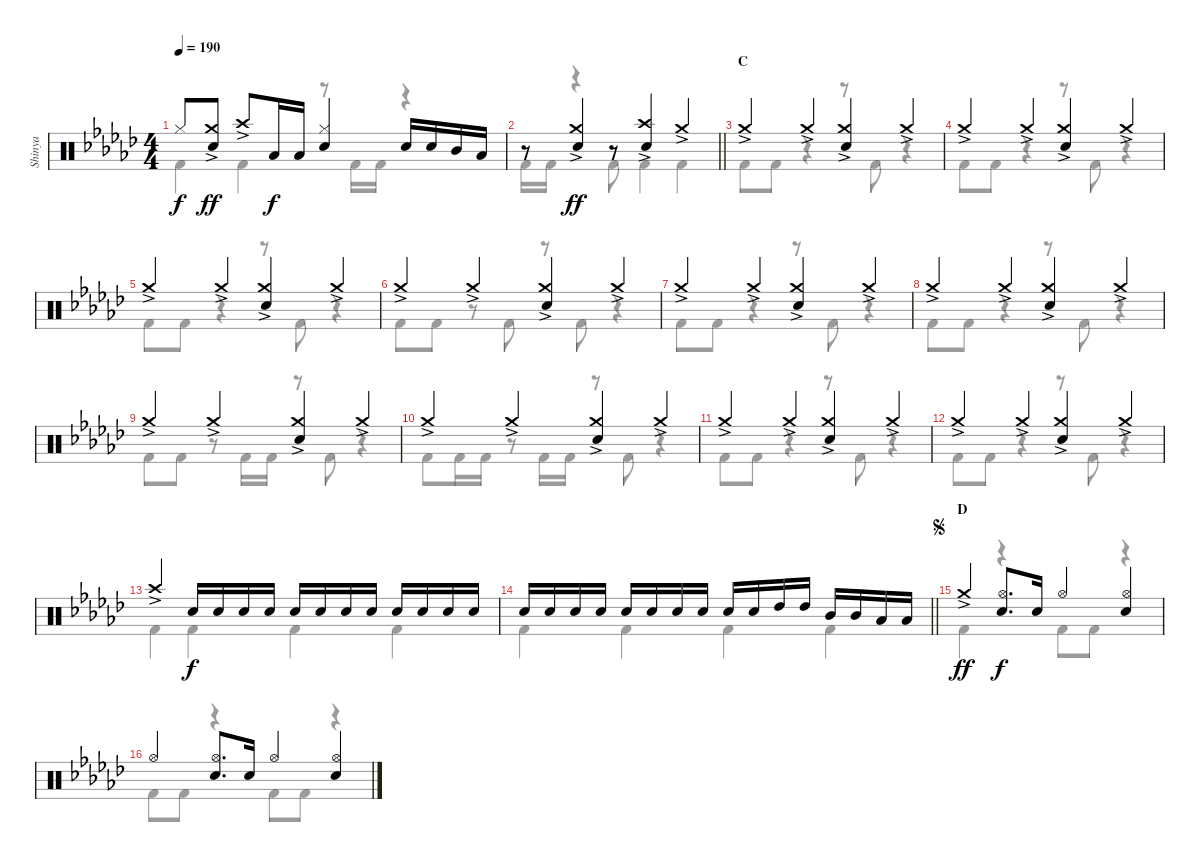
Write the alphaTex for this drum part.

\track ("Shinya" "Shinya") {instrument percussion}
\staff {score}
\articulation defaults
\voice
\ts (4 4)
\tempo 190
\clef neutral
\ks ebminor "Hi-Hat (closed)".8{dy f}
("Crash medium (hit)"{ac} "Snare (hit) 2").8{dy ff} "Crash high (hit)"{ac}.8 "Low Tom (hit)".16{dy f} "Low Tom (hit)".16 ("Hi-Hat (closed)" "Snare (hit) 2").4 "Snare (hit) 2".16 "Snare (hit) 2".16 "Mid Tom (hit)".16 "Low Tom (hit)".16 |
\barLineRight lightlight
r.8 ("Crash medium (hit)"{ac} "Snare (hit) 2").4{dy ff} r.8 ("Crash high (hit)"{ac} "Snare (hit) 2").4 "Crash medium (hit)"{ac}.4 |
\section ("" "C")
"Crash medium (hit)"{ac}.4 "Crash medium (hit)"{ac}.4 ("Crash medium (hit)"{ac} "Snare (hit) 2").4 "Crash medium (hit)"{ac}.4 |
"Crash medium (hit)"{ac}.4 "Crash medium (hit)"{ac}.4 ("Crash medium (hit)"{ac} "Snare (hit) 2").4 "Crash medium (hit)"{ac}.4 |
"Crash medium (hit)"{ac}.4 "Crash medium (hit)"{ac}.4 ("Crash medium (hit)"{ac} "Snare (hit) 2").4 "Crash medium (hit)"{ac}.4 |
"Crash medium (hit)"{ac}.4 "Crash medium (hit)"{ac}.4 ("Crash medium (hit)"{ac} "Snare (hit) 2").4 "Crash medium (hit)"{ac}.4 |
"Crash medium (hit)"{ac}.4 "Crash medium (hit)"{ac}.4 ("Crash medium (hit)"{ac} "Snare (hit) 2").4 "Crash medium (hit)"{ac}.4 |
"Crash medium (hit)"{ac}.4 "Crash medium (hit)"{ac}.4 ("Crash medium (hit)"{ac} "Snare (hit) 2").4 "Crash medium (hit)"{ac}.4 |
"Crash medium (hit)"{ac}.4 "Crash medium (hit)"{ac}.4 ("Crash medium (hit)"{ac} "Snare (hit) 2").4 "Crash medium (hit)"{ac}.4 |
"Crash medium (hit)"{ac}.4 "Crash medium (hit)"{ac}.4 ("Crash medium (hit)"{ac} "Snare (hit) 2").4 "Crash medium (hit)"{ac}.4 |
"Crash medium (hit)"{ac}.4 "Crash medium (hit)"{ac}.4 ("Crash medium (hit)"{ac} "Snare (hit) 2").4 "Crash medium (hit)"{ac}.4 |
"Crash medium (hit)"{ac}.4 "Crash medium (hit)"{ac}.4 ("Crash medium (hit)"{ac} "Snare (hit) 2").4 "Crash medium (hit)"{ac}.4 |
"Crash high (hit)"{ac}.4 "Snare (hit) 2".16{dy f} "Snare (hit) 2".16 "Snare (hit) 2".16 "Snare (hit) 2".16 "Snare (hit) 2".16 "Snare (hit) 2".16 "Snare (hit) 2".16 "Snare (hit) 2".16 "Snare (hit) 2".16 "Snare (hit) 2".16 "Snare (hit) 2".16 "Snare (hit) 2".16 |
\barLineRight lightlight "Snare (hit) 2".16 "Snare (hit) 2".16 "Snare (hit) 2".16 "Snare (hit) 2".16 "Snare (hit) 2".16 "Snare (hit) 2".16 "Snare (hit) 2".16 "Snare (hit) 2".16 "Snare (hit) 2".16 "Snare (hit) 2".16 "High Tom (hit)".16 "High Tom (hit)".16 "Mid Tom (hit)".16 "Mid Tom (hit)".16 "Low Tom (hit)".16 "Low Tom (hit)".16
|
\section ("" "D")
\jump segno "Crash medium (hit)"{ac}.4{dy ff}
("Hi-Hat (open)" "Snare (hit) 2").8{d dy f} "Snare (hit) 2".16 "Hi-Hat (open)".4 ("Hi-Hat (open)" "Snare (hit) 2").4 |
"Hi-Hat (open)".4 ("Hi-Hat (open)" "Snare (hit) 2").8{d} "Snare (hit) 2".16 "Hi-Hat (open)".4 ("Hi-Hat (open)" "Snare (hit) 2").4
\voice
\clef neutral
\ottava regular
\simile none
\ks ebminor "Kick (hit) 2".4{dy f} "Kick (hit) 2".4
r.8 "Kick (hit) 2".16 "Kick (hit) 2".16 r.4 |
\barLineRight lightlight "Kick (hit) 2".16 "Kick (hit) 2".16
r.4 "Kick (hit) 2".8 "Kick (hit) 2".4 "Kick (hit) 2".4 |
"Kick (hit) 2".8 "Kick (hit) 2".8 r.4 r.8 "Kick (hit) 2".8 r.4 |
"Kick (hit) 2".8 "Kick (hit) 2".8 r.4 r.8 "Kick (hit) 2".8 r.4 |
"Kick (hit) 2".8 "Kick (hit) 2".8 r.4 r.8 "Kick (hit) 2".8 r.4 |
"Kick (hit) 2".8 "Kick (hit) 2".8 r.8 "Kick (hit) 2".8 r.8 "Kick (hit) 2".8 r.4 |
"Kick (hit) 2".8 "Kick (hit) 2".8 r.4 r.8 "Kick (hit) 2".8 r.4 |
"Kick (hit) 2".8 "Kick (hit) 2".8 r.4 r.8 "Kick (hit) 2".8 r.4 |
"Kick (hit) 2".8 "Kick (hit) 2".8 r.8 "Kick (hit) 2".16 "Kick (hit) 2".16 r.8 "Kick (hit) 2".8 r.4 |
"Kick (hit) 2".8 "Kick (hit) 2".16 "Kick (hit) 2".16 r.8 "Kick (hit) 2".16 "Kick (hit) 2".16 r.8 "Kick (hit) 2".8 r.4 |
"Kick (hit) 2".8 "Kick (hit) 2".8 r.4 r.8 "Kick (hit) 2".8 r.4 |
"Kick (hit) 2".8 "Kick (hit) 2".8 r.4 r.8 "Kick (hit) 2".8 r.4 |
"Kick (hit) 2".4 "Kick (hit) 2".4 "Kick (hit) 2".4 "Kick (hit) 2".4 |
\barLineRight lightlight "Kick (hit) 2".4 "Kick (hit) 2".4 "Kick (hit) 2".4 "Kick (hit) 2".4
|
"Kick (hit) 2".4 r.4 "Kick (hit) 2".8 "Kick (hit) 2".8 r.4 |
"Kick (hit) 2".8 "Kick (hit) 2".8 r.4 "Kick (hit) 2".8 "Kick (hit) 2".8 r.4
